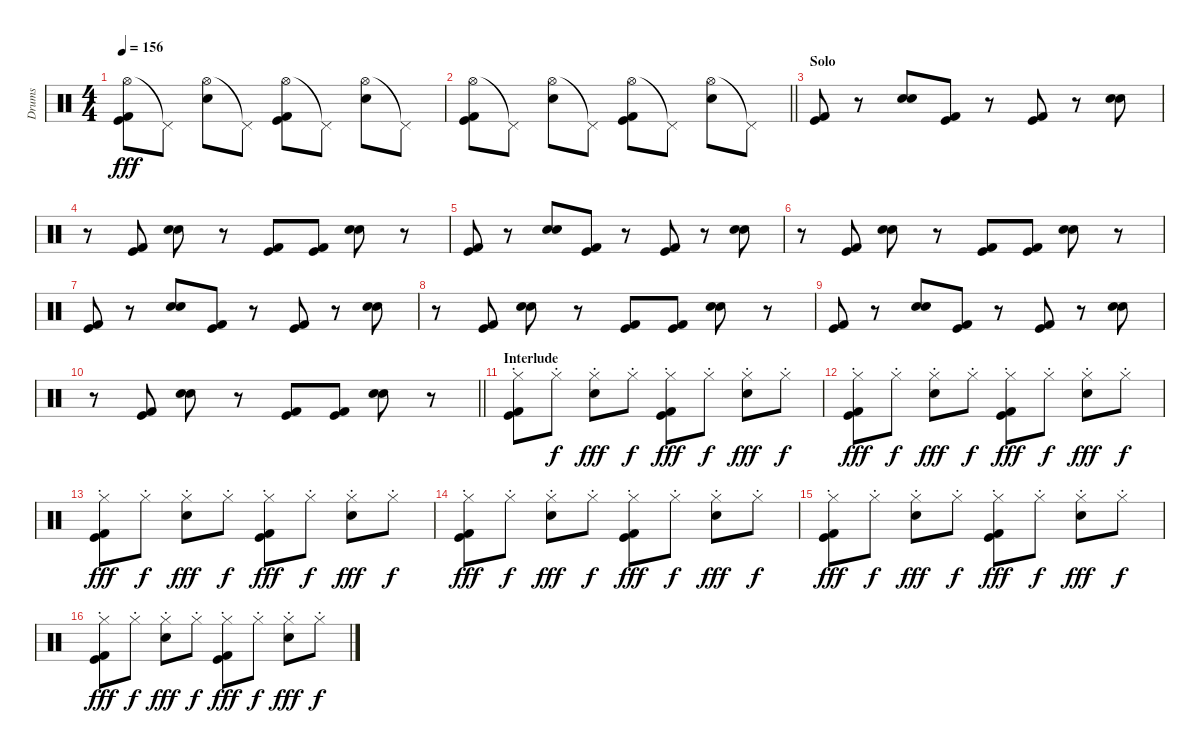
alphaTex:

\track ("Drums" "Drums") {instrument percussion}
\staff {score}
\articulation defaults
\ts (4 4)
\tempo 156
\clef neutral
\ks c
("Hi-Hat (open)" "Kick (hit) 2" "Kick (hit)").8{dy fff} "Pedal Hi-Hat (hit)"{t}.8 ("Hi-Hat (open)" "Electric Snare (hit)").8 "Pedal Hi-Hat (hit)"{t}.8 ("Hi-Hat (open)" "Kick (hit) 2" "Kick (hit)").8 "Pedal Hi-Hat (hit)"{t}.8 ("Hi-Hat (open)" "Electric Snare (hit)").8 "Pedal Hi-Hat (hit)"{t}.8 |
\barLineRight lightlight
("Hi-Hat (open)" "Kick (hit) 2" "Kick (hit)").8 "Pedal Hi-Hat (hit)"{t}.8 ("Hi-Hat (open)" "Electric Snare (hit)").8 "Pedal Hi-Hat (hit)"{t}.8 ("Hi-Hat (open)" "Kick (hit) 2" "Kick (hit)").8 "Pedal Hi-Hat (hit)"{t}.8 ("Hi-Hat (open)" "Electric Snare (hit)").8 "Pedal Hi-Hat (hit)"{t}.8 |
\section ("" "Solo")
("Kick (hit) 2" "Kick (hit)").8 r.8 ("Hand Clap (hit)" "Electric Snare (hit)").8 ("Kick (hit) 2" "Kick (hit)").8 r.8 ("Kick (hit) 2" "Kick (hit)").8 r.8 ("Hand Clap (hit)" "Electric Snare (hit)").8 |
r.8 ("Kick (hit) 2" "Kick (hit)").8 ("Hand Clap (hit)" "Electric Snare (hit)").8 r.8 ("Kick (hit) 2" "Kick (hit)").8 ("Kick (hit) 2" "Kick (hit)").8 ("Hand Clap (hit)" "Electric Snare (hit)").8 r.8 |
("Kick (hit) 2" "Kick (hit)").8 r.8 ("Hand Clap (hit)" "Electric Snare (hit)").8 ("Kick (hit) 2" "Kick (hit)").8 r.8 ("Kick (hit) 2" "Kick (hit)").8 r.8 ("Hand Clap (hit)" "Electric Snare (hit)").8 |
r.8 ("Kick (hit) 2" "Kick (hit)").8 ("Hand Clap (hit)" "Electric Snare (hit)").8 r.8 ("Kick (hit) 2" "Kick (hit)").8 ("Kick (hit) 2" "Kick (hit)").8 ("Hand Clap (hit)" "Electric Snare (hit)").8 r.8 |
("Kick (hit) 2" "Kick (hit)").8 r.8 ("Hand Clap (hit)" "Electric Snare (hit)").8 ("Kick (hit) 2" "Kick (hit)").8 r.8 ("Kick (hit) 2" "Kick (hit)").8 r.8 ("Hand Clap (hit)" "Electric Snare (hit)").8 |
r.8 ("Kick (hit) 2" "Kick (hit)").8 ("Hand Clap (hit)" "Electric Snare (hit)").8 r.8 ("Kick (hit) 2" "Kick (hit)").8 ("Kick (hit) 2" "Kick (hit)").8 ("Hand Clap (hit)" "Electric Snare (hit)").8 r.8 |
("Kick (hit) 2" "Kick (hit)").8 r.8 ("Hand Clap (hit)" "Electric Snare (hit)").8 ("Kick (hit) 2" "Kick (hit)").8 r.8 ("Kick (hit) 2" "Kick (hit)").8 r.8 ("Hand Clap (hit)" "Electric Snare (hit)").8 |
\barLineRight lightlight
r.8 ("Kick (hit) 2" "Kick (hit)").8 ("Hand Clap (hit)" "Electric Snare (hit)").8 r.8 ("Kick (hit) 2" "Kick (hit)").8 ("Kick (hit) 2" "Kick (hit)").8 ("Hand Clap (hit)" "Electric Snare (hit)").8 r.8 |
\section ("" "Interlude")
("Hi-Hat (closed)"{st} "Kick (hit) 2" "Kick (hit)").8 "Hi-Hat (closed)"{st}.8{dy f} ("Hi-Hat (closed)"{st} "Electric Snare (hit)").8{dy fff} "Hi-Hat (closed)"{st}.8{dy f} ("Hi-Hat (closed)"{st} "Kick (hit) 2" "Kick (hit)").8{dy fff} "Hi-Hat (closed)"{st}.8{dy f} ("Hi-Hat (closed)"{st} "Electric Snare (hit)").8{dy fff} "Hi-Hat (closed)"{st}.8{dy f} |
("Hi-Hat (closed)"{st} "Kick (hit) 2" "Kick (hit)").8{dy fff} "Hi-Hat (closed)"{st}.8{dy f} ("Hi-Hat (closed)"{st} "Electric Snare (hit)").8{dy fff} "Hi-Hat (closed)"{st}.8{dy f} ("Hi-Hat (closed)"{st} "Kick (hit) 2" "Kick (hit)").8{dy fff} "Hi-Hat (closed)"{st}.8{dy f} ("Hi-Hat (closed)"{st} "Electric Snare (hit)").8{dy fff} "Hi-Hat (closed)"{st}.8{dy f} |
("Hi-Hat (closed)"{st} "Kick (hit) 2" "Kick (hit)").8{dy fff} "Hi-Hat (closed)"{st}.8{dy f} ("Hi-Hat (closed)"{st} "Electric Snare (hit)").8{dy fff} "Hi-Hat (closed)"{st}.8{dy f} ("Hi-Hat (closed)"{st} "Kick (hit) 2" "Kick (hit)").8{dy fff} "Hi-Hat (closed)"{st}.8{dy f} ("Hi-Hat (closed)"{st} "Electric Snare (hit)").8{dy fff} "Hi-Hat (closed)"{st}.8{dy f} |
("Hi-Hat (closed)"{st} "Kick (hit) 2" "Kick (hit)").8{dy fff} "Hi-Hat (closed)"{st}.8{dy f} ("Hi-Hat (closed)"{st} "Electric Snare (hit)").8{dy fff} "Hi-Hat (closed)"{st}.8{dy f} ("Hi-Hat (closed)"{st} "Kick (hit) 2" "Kick (hit)").8{dy fff} "Hi-Hat (closed)"{st}.8{dy f} ("Hi-Hat (closed)"{st} "Electric Snare (hit)").8{dy fff} "Hi-Hat (closed)"{st}.8{dy f} |
("Hi-Hat (closed)"{st} "Kick (hit) 2" "Kick (hit)").8{dy fff} "Hi-Hat (closed)"{st}.8{dy f} ("Hi-Hat (closed)"{st} "Electric Snare (hit)").8{dy fff} "Hi-Hat (closed)"{st}.8{dy f} ("Hi-Hat (closed)"{st} "Kick (hit) 2" "Kick (hit)").8{dy fff} "Hi-Hat (closed)"{st}.8{dy f} ("Hi-Hat (closed)"{st} "Electric Snare (hit)").8{dy fff} "Hi-Hat (closed)"{st}.8{dy f} |
("Hi-Hat (closed)"{st} "Kick (hit) 2" "Kick (hit)").8{dy fff} "Hi-Hat (closed)"{st}.8{dy f} ("Hi-Hat (closed)"{st} "Electric Snare (hit)").8{dy fff} "Hi-Hat (closed)"{st}.8{dy f} ("Hi-Hat (closed)"{st} "Kick (hit) 2" "Kick (hit)").8{dy fff} "Hi-Hat (closed)"{st}.8{dy f} ("Hi-Hat (closed)"{st} "Electric Snare (hit)").8{dy fff} "Hi-Hat (closed)"{st}.8{dy f}
